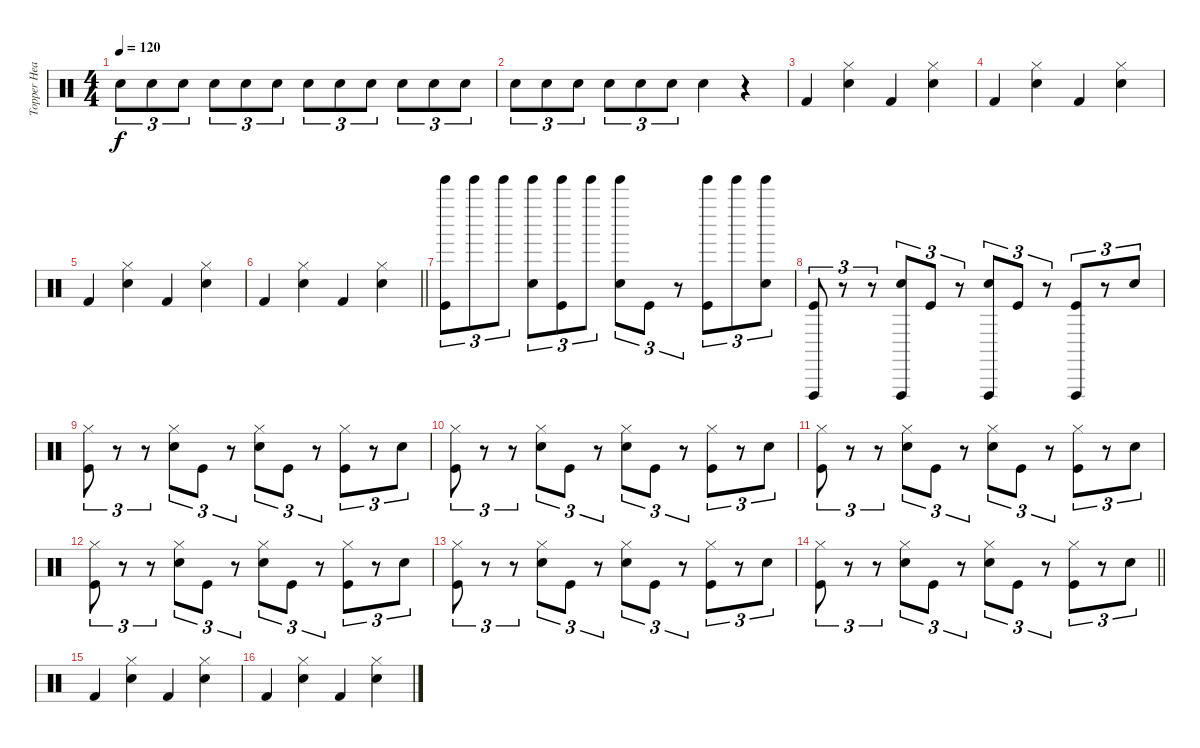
\track ("Topper Headon" "Topper Hea") {instrument percussion}
\staff {score}
\articulation defaults
\ts (4 4)
\tempo 120
\clef neutral
\ks c "Electric Snare (hit)".8{tu (3 2) dy f volume 7} "Electric Snare (hit)".8{tu (3 2) volume 8} "Electric Snare (hit)".8{tu (3 2) volume 9} "Electric Snare (hit)".8{tu (3 2) volume 10} "Electric Snare (hit)".8{tu (3 2) volume 11} "Electric Snare (hit)".8{tu (3 2) volume 12} "Electric Snare (hit)".8{tu (3 2) volume 13} "Electric Snare (hit)".8{tu (3 2)} "Electric Snare (hit)".8{tu (3 2)} "Electric Snare (hit)".8{tu (3 2)} "Electric Snare (hit)".8{tu (3 2)} "Electric Snare (hit)".8{tu (3 2)}
|
"Electric Snare (hit)".8{tu (3 2)} "Electric Snare (hit)".8{tu (3 2)} "Electric Snare (hit)".8{tu (3 2)} "Electric Snare (hit)".8{tu (3 2)} "Electric Snare (hit)".8{tu (3 2)} "Electric Snare (hit)".8{tu (3 2)} "Electric Snare (hit)".4 r.4 |
"Kick (hit) 2".4 ("Hi-Hat (closed)" "Electric Snare (hit)").4 "Kick (hit) 2".4 ("Hi-Hat (closed)" "Electric Snare (hit)").4 |
"Kick (hit) 2".4 ("Hi-Hat (closed)" "Electric Snare (hit)").4 "Kick (hit) 2".4 ("Hi-Hat (closed)" "Electric Snare (hit)").4 |
"Kick (hit) 2".4 ("Hi-Hat (closed)" "Electric Snare (hit)").4 "Kick (hit) 2".4 ("Hi-Hat (closed)" "Electric Snare (hit)").4 |
\barLineRight lightlight "Kick (hit) 2".4
("Hi-Hat (closed)" "Electric Snare (hit)").4 "Kick (hit) 2".4 ("Hi-Hat (closed)" "Electric Snare (hit)").4 |
("Tinkle Bell (hit)" "Kick (hit)").8{tu (3 2)} "Tinkle Bell (hit)".8{tu (3 2)} "Tinkle Bell (hit)".8{tu (3 2)} ("Tinkle Bell (hit)" "Electric Snare (hit)").8{tu (3 2)} ("Tinkle Bell (hit)" "Kick (hit)").8{tu (3 2)} "Tinkle Bell (hit)".8{tu (3 2)} ("Tinkle Bell (hit)" "Electric Snare (hit)").8{tu (3 2)} "Kick (hit)".8{tu (3 2)} r.8{tu (3 2)} ("Tinkle Bell (hit)" "Kick (hit)").8{tu (3 2)} "Tinkle Bell (hit)".8{tu (3 2)} ("Tinkle Bell (hit)" "Electric Snare (hit)").8{tu (3 2)} |
("Vibraslap (hit)" "Kick (hit)").8{tu (3 2)} r.8{tu (3 2)} r.8{tu (3 2)} ("Vibraslap (hit)" "Electric Snare (hit)").8{tu (3 2)} "Kick (hit)".8{tu (3 2)} r.8{tu (3 2)} ("Vibraslap (hit)" "Electric Snare (hit)").8{tu (3 2)} "Kick (hit)".8{tu (3 2)} r.8{tu (3 2)} ("Vibraslap (hit)" "Kick (hit)").8{tu (3 2)} r.8{tu (3 2)} "Electric Snare (hit)".8{tu (3 2)} |
("Hi-Hat (closed)" "Kick (hit)").8{tu (3 2)} r.8{tu (3 2)} r.8{tu (3 2)} ("Hi-Hat (closed)" "Electric Snare (hit)").8{tu (3 2)} "Kick (hit)".8{tu (3 2)} r.8{tu (3 2)} ("Hi-Hat (closed)" "Electric Snare (hit)").8{tu (3 2)} "Kick (hit)".8{tu (3 2)} r.8{tu (3 2)} ("Hi-Hat (closed)" "Kick (hit)").8{tu (3 2)} r.8{tu (3 2)} "Electric Snare (hit)".8{tu (3 2)} |
("Hi-Hat (closed)" "Kick (hit)").8{tu (3 2)} r.8{tu (3 2)} r.8{tu (3 2)} ("Hi-Hat (closed)" "Electric Snare (hit)").8{tu (3 2)} "Kick (hit)".8{tu (3 2)} r.8{tu (3 2)} ("Hi-Hat (closed)" "Electric Snare (hit)").8{tu (3 2)} "Kick (hit)".8{tu (3 2)} r.8{tu (3 2)} ("Hi-Hat (closed)" "Kick (hit)").8{tu (3 2)} r.8{tu (3 2)} "Electric Snare (hit)".8{tu (3 2)} |
("Hi-Hat (closed)" "Kick (hit)").8{tu (3 2)} r.8{tu (3 2)} r.8{tu (3 2)} ("Hi-Hat (closed)" "Electric Snare (hit)").8{tu (3 2)} "Kick (hit)".8{tu (3 2)} r.8{tu (3 2)} ("Hi-Hat (closed)" "Electric Snare (hit)").8{tu (3 2)} "Kick (hit)".8{tu (3 2)} r.8{tu (3 2)} ("Hi-Hat (closed)" "Kick (hit)").8{tu (3 2)} r.8{tu (3 2)} "Electric Snare (hit)".8{tu (3 2)} |
("Hi-Hat (closed)" "Kick (hit)").8{tu (3 2)} r.8{tu (3 2)} r.8{tu (3 2)} ("Hi-Hat (closed)" "Electric Snare (hit)").8{tu (3 2)} "Kick (hit)".8{tu (3 2)} r.8{tu (3 2)} ("Hi-Hat (closed)" "Electric Snare (hit)").8{tu (3 2)} "Kick (hit)".8{tu (3 2)} r.8{tu (3 2)} ("Hi-Hat (closed)" "Kick (hit)").8{tu (3 2)} r.8{tu (3 2)} "Electric Snare (hit)".8{tu (3 2)} |
("Hi-Hat (closed)" "Kick (hit)").8{tu (3 2)} r.8{tu (3 2)} r.8{tu (3 2)} ("Hi-Hat (closed)" "Electric Snare (hit)").8{tu (3 2)} "Kick (hit)".8{tu (3 2)} r.8{tu (3 2)} ("Hi-Hat (closed)" "Electric Snare (hit)").8{tu (3 2)} "Kick (hit)".8{tu (3 2)} r.8{tu (3 2)} ("Hi-Hat (closed)" "Kick (hit)").8{tu (3 2)} r.8{tu (3 2)} "Electric Snare (hit)".8{tu (3 2)} |
\barLineRight lightlight
("Hi-Hat (closed)" "Kick (hit)").8{tu (3 2)} r.8{tu (3 2)} r.8{tu (3 2)} ("Hi-Hat (closed)" "Electric Snare (hit)").8{tu (3 2)} "Kick (hit)".8{tu (3 2)} r.8{tu (3 2)} ("Hi-Hat (closed)" "Electric Snare (hit)").8{tu (3 2)} "Kick (hit)".8{tu (3 2)} r.8{tu (3 2)} ("Hi-Hat (closed)" "Kick (hit)").8{tu (3 2)} r.8{tu (3 2)} "Electric Snare (hit)".8{tu (3 2)} |
"Kick (hit) 2".4{volume 12} ("Hi-Hat (closed)" "Electric Snare (hit)").4 "Kick (hit) 2".4 ("Hi-Hat (closed)" "Electric Snare (hit)").4 |
"Kick (hit) 2".4{volume 11} ("Hi-Hat (closed)" "Electric Snare (hit)").4 "Kick (hit) 2".4 ("Hi-Hat (closed)" "Electric Snare (hit)").4
